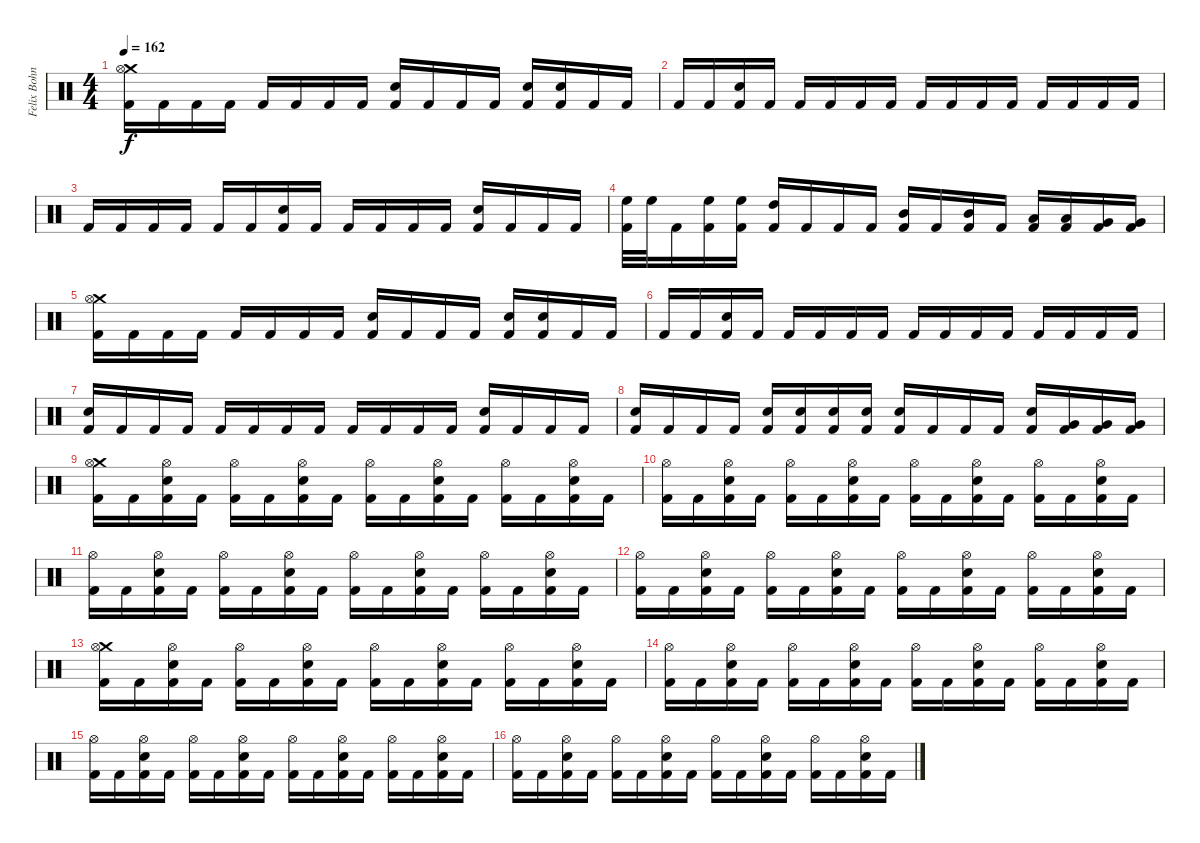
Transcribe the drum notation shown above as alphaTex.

\track ("Felix Bohnke" "Felix Bohn") {instrument percussion}
\staff {score}
\articulation defaults
\ts (4 4)
\tempo 162
\clef neutral
\ks c
("Crash medium (hit)" "Hi-Hat (open)" "Kick (hit) 2").16{dy f} "Kick (hit) 2".16 "Kick (hit) 2".16 "Kick (hit) 2".16 "Kick (hit) 2".16 "Kick (hit) 2".16 "Kick (hit) 2".16 "Kick (hit) 2".16 ("Electric Snare (hit)" "Kick (hit) 2").16 "Kick (hit) 2".16 "Kick (hit) 2".16 "Kick (hit) 2".16 ("Electric Snare (hit)" "Kick (hit) 2").16 ("Electric Snare (hit)" "Kick (hit) 2").16 "Kick (hit) 2".16 "Kick (hit) 2".16 |
"Kick (hit) 2".16 "Kick (hit) 2".16 ("Electric Snare (hit)" "Kick (hit) 2").16 "Kick (hit) 2".16 "Kick (hit) 2".16 "Kick (hit) 2".16 "Kick (hit) 2".16 "Kick (hit) 2".16 "Kick (hit) 2".16 "Kick (hit) 2".16 "Kick (hit) 2".16 "Kick (hit) 2".16 "Kick (hit) 2".16 "Kick (hit) 2".16 "Kick (hit) 2".16 "Kick (hit) 2".16 |
"Kick (hit) 2".16 "Kick (hit) 2".16 "Kick (hit) 2".16 "Kick (hit) 2".16 "Kick (hit) 2".16 "Kick (hit) 2".16 ("Electric Snare (hit)" "Kick (hit) 2").16 "Kick (hit) 2".16 "Kick (hit) 2".16 "Kick (hit) 2".16 "Kick (hit) 2".16 "Kick (hit) 2".16 ("Electric Snare (hit)" "Kick (hit) 2").16 "Kick (hit) 2".16 "Kick (hit) 2".16 "Kick (hit) 2".16 |
("High Floor Tom (hit)" "Kick (hit) 2").32 "High Floor Tom (hit)".32 "Kick (hit) 2".16 ("High Floor Tom (hit)" "Kick (hit) 2").16 ("High Floor Tom (hit)" "Kick (hit) 2").16 ("High Tom (hit)" "Kick (hit) 2").16 "Kick (hit) 2".16 "Kick (hit) 2".16 "Kick (hit) 2".16 ("Mid Tom (hit)" "Kick (hit) 2").16 "Kick (hit) 2".16 ("Mid Tom (hit)" "Kick (hit) 2").16 "Kick (hit) 2".16 ("Low Tom (hit)" "Kick (hit) 2").16 ("Low Tom (hit)" "Kick (hit) 2").16 ("Very Low Tom (hit)" "Kick (hit) 2").16 ("Very Low Tom (hit)" "Kick (hit) 2").16 |
("Crash medium (hit)" "Hi-Hat (open)" "Kick (hit) 2").16 "Kick (hit) 2".16 "Kick (hit) 2".16 "Kick (hit) 2".16 "Kick (hit) 2".16 "Kick (hit) 2".16 "Kick (hit) 2".16 "Kick (hit) 2".16 ("Electric Snare (hit)" "Kick (hit) 2").16 "Kick (hit) 2".16 "Kick (hit) 2".16 "Kick (hit) 2".16 ("Electric Snare (hit)" "Kick (hit) 2").16 ("Electric Snare (hit)" "Kick (hit) 2").16 "Kick (hit) 2".16 "Kick (hit) 2".16 |
"Kick (hit) 2".16 "Kick (hit) 2".16 ("Electric Snare (hit)" "Kick (hit) 2").16 "Kick (hit) 2".16 "Kick (hit) 2".16 "Kick (hit) 2".16 "Kick (hit) 2".16 "Kick (hit) 2".16 "Kick (hit) 2".16 "Kick (hit) 2".16 "Kick (hit) 2".16 "Kick (hit) 2".16 "Kick (hit) 2".16 "Kick (hit) 2".16 "Kick (hit) 2".16 "Kick (hit) 2".16 |
("Electric Snare (hit)" "Kick (hit) 2").16 "Kick (hit) 2".16 "Kick (hit) 2".16 "Kick (hit) 2".16 "Kick (hit) 2".16 "Kick (hit) 2".16 "Kick (hit) 2".16 "Kick (hit) 2".16 "Kick (hit) 2".16 "Kick (hit) 2".16 "Kick (hit) 2".16 "Kick (hit) 2".16 ("Electric Snare (hit)" "Kick (hit) 2").16 "Kick (hit) 2".16 "Kick (hit) 2".16 "Kick (hit) 2".16 |
("Electric Snare (hit)" "Kick (hit) 2").16 "Kick (hit) 2".16 "Kick (hit) 2".16 "Kick (hit) 2".16 ("Electric Snare (hit)" "Kick (hit) 2").16 ("Electric Snare (hit)" "Kick (hit) 2").16 ("Electric Snare (hit)" "Kick (hit) 2").16 ("Electric Snare (hit)" "Kick (hit) 2").16 ("Electric Snare (hit)" "Kick (hit) 2").16 "Kick (hit) 2".16 "Kick (hit) 2".16 "Kick (hit) 2".16 ("Electric Snare (hit)" "Kick (hit) 2").16 ("Very Low Tom (hit)" "Kick (hit) 2").16 ("Very Low Tom (hit)" "Kick (hit) 2").16 ("Very Low Tom (hit)" "Kick (hit) 2").16 |
("Crash medium (hit)" "Hi-Hat (open)" "Kick (hit) 2").16 "Kick (hit) 2".16 ("Electric Snare (hit)" "Hi-Hat (open)" "Kick (hit) 2").16 "Kick (hit) 2".16 ("Hi-Hat (open)" "Kick (hit) 2").16 "Kick (hit) 2".16 ("Electric Snare (hit)" "Hi-Hat (open)" "Kick (hit) 2").16 "Kick (hit) 2".16 ("Hi-Hat (open)" "Kick (hit) 2").16 "Kick (hit) 2".16 ("Electric Snare (hit)" "Hi-Hat (open)" "Kick (hit) 2").16 "Kick (hit) 2".16 ("Hi-Hat (open)" "Kick (hit) 2").16 "Kick (hit) 2".16 ("Electric Snare (hit)" "Hi-Hat (open)" "Kick (hit) 2").16 "Kick (hit) 2".16 |
("Hi-Hat (open)" "Kick (hit) 2").16 "Kick (hit) 2".16 ("Electric Snare (hit)" "Hi-Hat (open)" "Kick (hit) 2").16 "Kick (hit) 2".16 ("Hi-Hat (open)" "Kick (hit) 2").16 "Kick (hit) 2".16 ("Electric Snare (hit)" "Hi-Hat (open)" "Kick (hit) 2").16 "Kick (hit) 2".16 ("Hi-Hat (open)" "Kick (hit) 2").16 "Kick (hit) 2".16 ("Electric Snare (hit)" "Hi-Hat (open)" "Kick (hit) 2").16 "Kick (hit) 2".16 ("Hi-Hat (open)" "Kick (hit) 2").16 "Kick (hit) 2".16 ("Electric Snare (hit)" "Hi-Hat (open)" "Kick (hit) 2").16 "Kick (hit) 2".16 |
("Hi-Hat (open)" "Kick (hit) 2").16 "Kick (hit) 2".16 ("Electric Snare (hit)" "Hi-Hat (open)" "Kick (hit) 2").16 "Kick (hit) 2".16 ("Hi-Hat (open)" "Kick (hit) 2").16 "Kick (hit) 2".16 ("Electric Snare (hit)" "Hi-Hat (open)" "Kick (hit) 2").16 "Kick (hit) 2".16 ("Hi-Hat (open)" "Kick (hit) 2").16 "Kick (hit) 2".16 ("Electric Snare (hit)" "Hi-Hat (open)" "Kick (hit) 2").16 "Kick (hit) 2".16 ("Hi-Hat (open)" "Kick (hit) 2").16 "Kick (hit) 2".16 ("Electric Snare (hit)" "Hi-Hat (open)" "Kick (hit) 2").16 "Kick (hit) 2".16 |
("Hi-Hat (open)" "Kick (hit) 2").16 "Kick (hit) 2".16 ("Electric Snare (hit)" "Hi-Hat (open)" "Kick (hit) 2").16 "Kick (hit) 2".16 ("Hi-Hat (open)" "Kick (hit) 2").16 "Kick (hit) 2".16 ("Electric Snare (hit)" "Hi-Hat (open)" "Kick (hit) 2").16 "Kick (hit) 2".16 ("Hi-Hat (open)" "Kick (hit) 2").16 "Kick (hit) 2".16 ("Electric Snare (hit)" "Hi-Hat (open)" "Kick (hit) 2").16 "Kick (hit) 2".16 ("Hi-Hat (open)" "Kick (hit) 2").16 "Kick (hit) 2".16 ("Electric Snare (hit)" "Hi-Hat (open)" "Kick (hit) 2").16 "Kick (hit) 2".16 |
("Crash medium (hit)" "Hi-Hat (open)" "Kick (hit) 2").16 "Kick (hit) 2".16 ("Electric Snare (hit)" "Hi-Hat (open)" "Kick (hit) 2").16 "Kick (hit) 2".16 ("Hi-Hat (open)" "Kick (hit) 2").16 "Kick (hit) 2".16 ("Electric Snare (hit)" "Hi-Hat (open)" "Kick (hit) 2").16 "Kick (hit) 2".16 ("Hi-Hat (open)" "Kick (hit) 2").16 "Kick (hit) 2".16 ("Electric Snare (hit)" "Hi-Hat (open)" "Kick (hit) 2").16 "Kick (hit) 2".16 ("Hi-Hat (open)" "Kick (hit) 2").16 "Kick (hit) 2".16 ("Electric Snare (hit)" "Hi-Hat (open)" "Kick (hit) 2").16 "Kick (hit) 2".16 |
("Hi-Hat (open)" "Kick (hit) 2").16 "Kick (hit) 2".16 ("Electric Snare (hit)" "Hi-Hat (open)" "Kick (hit) 2").16 "Kick (hit) 2".16 ("Hi-Hat (open)" "Kick (hit) 2").16 "Kick (hit) 2".16 ("Electric Snare (hit)" "Hi-Hat (open)" "Kick (hit) 2").16 "Kick (hit) 2".16 ("Hi-Hat (open)" "Kick (hit) 2").16 "Kick (hit) 2".16 ("Electric Snare (hit)" "Hi-Hat (open)" "Kick (hit) 2").16 "Kick (hit) 2".16 ("Hi-Hat (open)" "Kick (hit) 2").16 "Kick (hit) 2".16 ("Electric Snare (hit)" "Hi-Hat (open)" "Kick (hit) 2").16 "Kick (hit) 2".16 |
("Hi-Hat (open)" "Kick (hit) 2").16 "Kick (hit) 2".16 ("Electric Snare (hit)" "Hi-Hat (open)" "Kick (hit) 2").16 "Kick (hit) 2".16 ("Hi-Hat (open)" "Kick (hit) 2").16 "Kick (hit) 2".16 ("Electric Snare (hit)" "Hi-Hat (open)" "Kick (hit) 2").16 "Kick (hit) 2".16 ("Hi-Hat (open)" "Kick (hit) 2").16 "Kick (hit) 2".16 ("Electric Snare (hit)" "Hi-Hat (open)" "Kick (hit) 2").16 "Kick (hit) 2".16 ("Hi-Hat (open)" "Kick (hit) 2").16 "Kick (hit) 2".16 ("Electric Snare (hit)" "Hi-Hat (open)" "Kick (hit) 2").16 "Kick (hit) 2".16 |
("Hi-Hat (open)" "Kick (hit) 2").16 "Kick (hit) 2".16 ("Electric Snare (hit)" "Hi-Hat (open)" "Kick (hit) 2").16 "Kick (hit) 2".16 ("Hi-Hat (open)" "Kick (hit) 2").16 "Kick (hit) 2".16 ("Electric Snare (hit)" "Hi-Hat (open)" "Kick (hit) 2").16 "Kick (hit) 2".16 ("Hi-Hat (open)" "Kick (hit) 2").16 "Kick (hit) 2".16 ("Electric Snare (hit)" "Hi-Hat (open)" "Kick (hit) 2").16 "Kick (hit) 2".16 ("Hi-Hat (open)" "Kick (hit) 2").16 "Kick (hit) 2".16 ("Electric Snare (hit)" "Hi-Hat (open)" "Kick (hit) 2").16 "Kick (hit) 2".16
